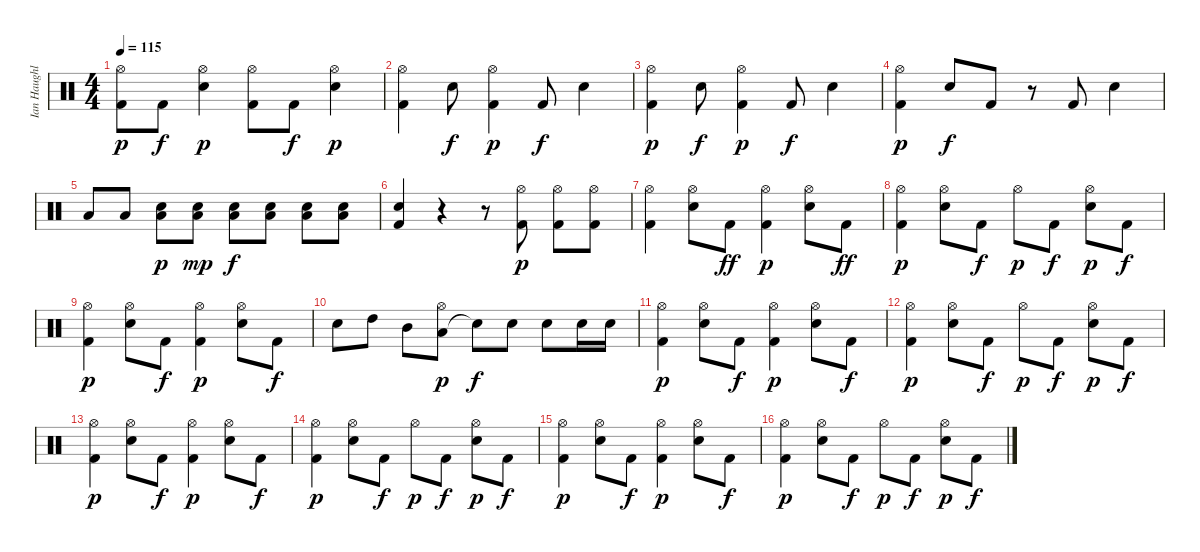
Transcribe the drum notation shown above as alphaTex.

\track ("Ian Haughland" "Ian Haughl") {instrument percussion}
\staff {score}
\articulation defaults
\ts (4 4)
\tempo 115
\clef neutral
\ks c
("Kick (hit) 2" "Hi-Hat (open)").8{dy p} "Kick (hit) 2".8{dy f} ("Snare (hit) 2" "Hi-Hat (open)").4{dy p} ("Kick (hit) 2" "Hi-Hat (open)").8 "Kick (hit) 2".8{dy f} ("Snare (hit) 2" "Hi-Hat (open)").4{dy p} |
("Kick (hit) 2" "Hi-Hat (open)").4 "Snare (hit) 2".8{dy f} ("Kick (hit) 2" "Hi-Hat (open)").4{dy p} "Kick (hit) 2".8{dy f} "Snare (hit) 2".4 |
("Kick (hit) 2" "Hi-Hat (open)").4{dy p} "Snare (hit) 2".8{dy f} ("Kick (hit) 2" "Hi-Hat (open)").4{dy p} "Kick (hit) 2".8{dy f} "Snare (hit) 2".4 |
("Kick (hit) 2" "Hi-Hat (open)").4{dy p} "Snare (hit) 2".8{dy f} "Kick (hit) 2".8 r.8 "Kick (hit) 2".8 "Snare (hit) 2".4 |
"Low Floor Tom (hit)".8 "Low Floor Tom (hit)".8 ("Low Floor Tom (hit)" "Snare (hit) 2").8{dy p} ("Low Floor Tom (hit)" "Snare (hit) 2").8{dy mp} ("Low Floor Tom (hit)" "Snare (hit) 2").8{dy f} ("Low Floor Tom (hit)" "Snare (hit) 2").8 ("Low Floor Tom (hit)" "Snare (hit) 2").8 ("Low Floor Tom (hit)" "Snare (hit) 2").8 |
("Kick (hit) 2" "Snare (hit) 2").4 r.4 r.8 ("Kick (hit) 2" "Hi-Hat (open)").8{dy p} ("Kick (hit) 2" "Hi-Hat (open)").8 ("Kick (hit) 2" "Hi-Hat (open)").8 |
("Kick (hit) 2" "Hi-Hat (open)").4 ("Snare (hit) 2" "Hi-Hat (open)").8 "Kick (hit) 2".8{dy ff} ("Kick (hit) 2" "Hi-Hat (open)").4{dy p} ("Snare (hit) 2" "Hi-Hat (open)").8 "Kick (hit) 2".8{dy ff} |
("Kick (hit) 2" "Hi-Hat (open)").4{dy p} ("Snare (hit) 2" "Hi-Hat (open)").8 "Kick (hit) 2".8{dy f} "Hi-Hat (open)".8{dy p} "Kick (hit) 2".8{dy f} ("Snare (hit) 2" "Hi-Hat (open)").8{dy p} "Kick (hit) 2".8{dy f} |
("Kick (hit) 2" "Hi-Hat (open)").4{dy p} ("Snare (hit) 2" "Hi-Hat (open)").8 "Kick (hit) 2".8{dy f} ("Kick (hit) 2" "Hi-Hat (open)").4{dy p} ("Snare (hit) 2" "Hi-Hat (open)").8 "Kick (hit) 2".8{dy f} |
"Snare (hit) 2".8 "High Tom (hit)".8 "Mid Tom (hit)".8 ("Low Floor Tom (hit)" "Hi-Hat (open)").8{dy p} "Snare (hit)"{t}.8{dy f} "Snare (hit) 2".8 "Snare (hit) 2".8 "Snare (hit) 2".16 "Snare (hit) 2".16 |
("Kick (hit) 2" "Hi-Hat (open)").4{dy p} ("Snare (hit) 2" "Hi-Hat (open)").8 "Kick (hit) 2".8{dy f} ("Kick (hit) 2" "Hi-Hat (open)").4{dy p} ("Snare (hit) 2" "Hi-Hat (open)").8 "Kick (hit) 2".8{dy f} |
("Kick (hit) 2" "Hi-Hat (open)").4{dy p} ("Snare (hit) 2" "Hi-Hat (open)").8 "Kick (hit) 2".8{dy f} "Hi-Hat (open)".8{dy p} "Kick (hit) 2".8{dy f} ("Snare (hit) 2" "Hi-Hat (open)").8{dy p} "Kick (hit) 2".8{dy f} |
("Kick (hit) 2" "Hi-Hat (open)").4{dy p} ("Snare (hit) 2" "Hi-Hat (open)").8 "Kick (hit) 2".8{dy f} ("Kick (hit) 2" "Hi-Hat (open)").4{dy p} ("Snare (hit) 2" "Hi-Hat (open)").8 "Kick (hit) 2".8{dy f} |
("Kick (hit) 2" "Hi-Hat (open)").4{dy p} ("Snare (hit) 2" "Hi-Hat (open)").8 "Kick (hit) 2".8{dy f} "Hi-Hat (open)".8{dy p} "Kick (hit) 2".8{dy f} ("Snare (hit) 2" "Hi-Hat (open)").8{dy p} "Kick (hit) 2".8{dy f} |
("Kick (hit) 2" "Hi-Hat (open)").4{dy p} ("Snare (hit) 2" "Hi-Hat (open)").8 "Kick (hit) 2".8{dy f} ("Kick (hit) 2" "Hi-Hat (open)").4{dy p} ("Snare (hit) 2" "Hi-Hat (open)").8 "Kick (hit) 2".8{dy f} |
("Kick (hit) 2" "Hi-Hat (open)").4{dy p} ("Snare (hit) 2" "Hi-Hat (open)").8 "Kick (hit) 2".8{dy f} "Hi-Hat (open)".8{dy p} "Kick (hit) 2".8{dy f} ("Snare (hit) 2" "Hi-Hat (open)").8{dy p} "Kick (hit) 2".8{dy f}
